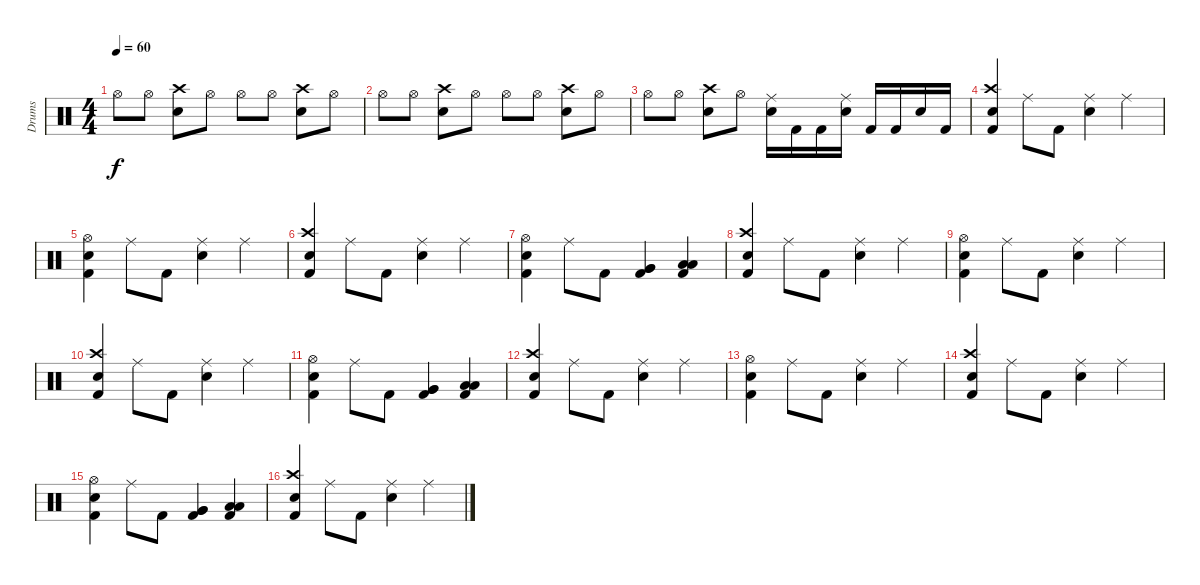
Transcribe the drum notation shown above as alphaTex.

\track ("Drums" "Drums") {instrument percussion}
\staff {score}
\articulation defaults
\ts (4 4)
\tempo 60
\clef neutral
\ks c "Hi-Hat (open)".8{dy f} "Hi-Hat (open)".8
("Electric Snare (hit)" "Crash high (hit)").8 "Hi-Hat (open)".8 "Hi-Hat (open)".8 "Hi-Hat (open)".8 ("Electric Snare (hit)" "Crash high (hit)").8 "Hi-Hat (open)".8 |
"Hi-Hat (open)".8 "Hi-Hat (open)".8 ("Electric Snare (hit)" "Crash high (hit)").8 "Hi-Hat (open)".8 "Hi-Hat (open)".8 "Hi-Hat (open)".8 ("Electric Snare (hit)" "Crash high (hit)").8 "Hi-Hat (open)".8 |
"Hi-Hat (open)".8 "Hi-Hat (open)".8 ("Electric Snare (hit)" "Crash high (hit)").8 "Hi-Hat (open)".8 ("Electric Snare (hit)" "Ride (middle)").16 "Kick (hit) 2".16 "Kick (hit) 2".16 ("Electric Snare (hit)" "Ride (middle)").16 "Kick (hit) 2".16 "Kick (hit) 2".16 "Electric Snare (hit)".16 "Kick (hit) 2".16 |
("Kick (hit) 2" "Electric Snare (hit)" "Crash high (hit)").4 "Ride (middle)".8 "Kick (hit) 2".8 ("Electric Snare (hit)" "Ride (middle)").4 "Ride (middle)".4 |
("Kick (hit) 2" "Electric Snare (hit)" "Hi-Hat (open)").4 "Ride (middle)".8 "Kick (hit) 2".8 ("Electric Snare (hit)" "Ride (middle)").4 "Ride (middle)".4 |
("Kick (hit) 2" "Electric Snare (hit)" "Crash high (hit)").4 "Ride (middle)".8 "Kick (hit) 2".8 ("Electric Snare (hit)" "Ride (middle)").4 "Ride (middle)".4 |
("Kick (hit) 2" "Electric Snare (hit)" "Hi-Hat (open)").4 "Ride (middle)".8 "Kick (hit) 2".8 ("Kick (hit) 2" "Very Low Tom (hit)" "Very Low Tom (hit)").4 ("Kick (hit) 2" "Low Floor Tom (hit)" "Low Floor Tom (hit)").4 |
("Kick (hit) 2" "Electric Snare (hit)" "Crash high (hit)").4 "Ride (middle)".8 "Kick (hit) 2".8 ("Electric Snare (hit)" "Ride (middle)").4 "Ride (middle)".4 |
("Kick (hit) 2" "Electric Snare (hit)" "Hi-Hat (open)").4 "Ride (middle)".8 "Kick (hit) 2".8 ("Electric Snare (hit)" "Ride (middle)").4 "Ride (middle)".4 |
("Kick (hit) 2" "Electric Snare (hit)" "Crash high (hit)").4 "Ride (middle)".8 "Kick (hit) 2".8 ("Electric Snare (hit)" "Ride (middle)").4 "Ride (middle)".4 |
("Kick (hit) 2" "Electric Snare (hit)" "Hi-Hat (open)").4 "Ride (middle)".8 "Kick (hit) 2".8 ("Kick (hit) 2" "Very Low Tom (hit)" "Very Low Tom (hit)").4 ("Kick (hit) 2" "Low Floor Tom (hit)" "Low Floor Tom (hit)").4 |
("Kick (hit) 2" "Electric Snare (hit)" "Crash high (hit)").4 "Ride (middle)".8 "Kick (hit) 2".8 ("Electric Snare (hit)" "Ride (middle)").4 "Ride (middle)".4 |
("Kick (hit) 2" "Electric Snare (hit)" "Hi-Hat (open)").4 "Ride (middle)".8 "Kick (hit) 2".8 ("Electric Snare (hit)" "Ride (middle)").4 "Ride (middle)".4 |
("Kick (hit) 2" "Electric Snare (hit)" "Crash high (hit)").4 "Ride (middle)".8 "Kick (hit) 2".8 ("Electric Snare (hit)" "Ride (middle)").4 "Ride (middle)".4 |
("Kick (hit) 2" "Electric Snare (hit)" "Hi-Hat (open)").4 "Ride (middle)".8 "Kick (hit) 2".8 ("Kick (hit) 2" "Very Low Tom (hit)" "Very Low Tom (hit)").4 ("Kick (hit) 2" "Low Floor Tom (hit)" "Low Floor Tom (hit)").4 |
("Kick (hit) 2" "Electric Snare (hit)" "Crash high (hit)").4 "Ride (middle)".8 "Kick (hit) 2".8 ("Electric Snare (hit)" "Ride (middle)").4 "Ride (middle)".4
